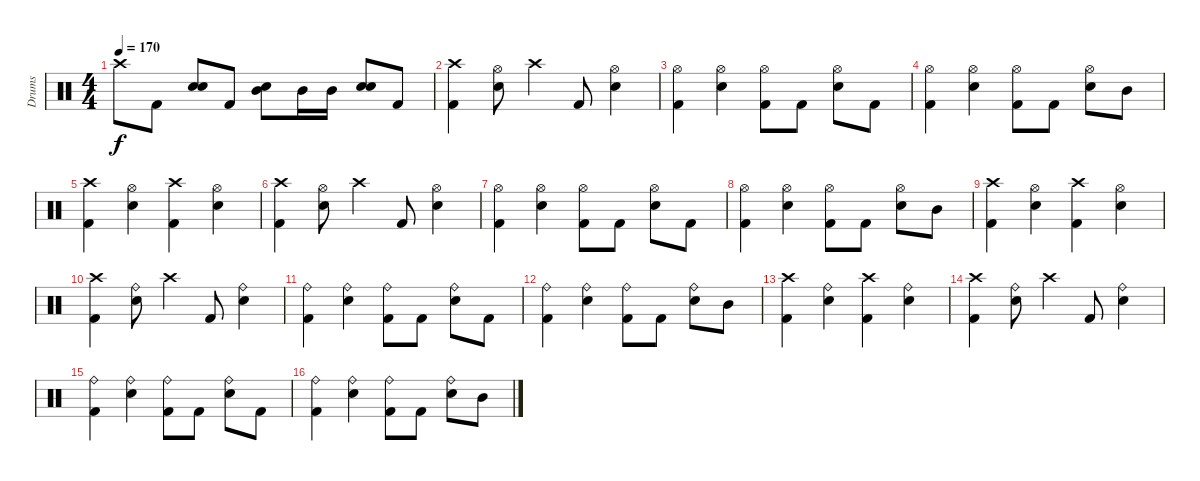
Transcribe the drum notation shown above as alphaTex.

\track ("Drums" "Drums") {instrument percussion}
\staff {score}
\articulation defaults
\ts (4 4)
\tempo 170
\clef neutral
\ks c "Crash high (hit)".8{dy f} "Kick (hit) 2".8
("Snare (hit) 2" "Snare (hit) 2").8{bd 120} "Kick (hit) 2".8 ("Mid Tom (hit)" "Snare (hit) 2").8 "Mid Tom (hit)".16 "Mid Tom (hit)".16 ("Snare (hit) 2" "Snare (hit) 2").8{bd 120} "Kick (hit) 2".8 |
("Crash high (hit)" "Kick (hit) 2").4 ("Hi-Hat (open)" "Snare (hit) 2").8 "Crash high (hit)".4 "Kick (hit) 2".8 ("Hi-Hat (open)" "Snare (hit) 2").4 |
("Hi-Hat (open)" "Kick (hit) 2").4 ("Hi-Hat (open)" "Snare (hit) 2").4 ("Hi-Hat (open)" "Kick (hit) 2").8 "Kick (hit) 2".8 ("Hi-Hat (open)" "Snare (hit) 2").8 "Kick (hit) 2".8 |
("Hi-Hat (open)" "Kick (hit) 2").4 ("Hi-Hat (open)" "Snare (hit) 2").4 ("Hi-Hat (open)" "Kick (hit) 2").8 "Kick (hit) 2".8 ("Hi-Hat (open)" "Snare (hit) 2").8 "Mid Tom (hit)".8 |
("Crash high (hit)" "Kick (hit) 2").4 ("Hi-Hat (open)" "Snare (hit) 2").4 ("Crash high (hit)" "Kick (hit) 2").4 ("Hi-Hat (open)" "Snare (hit) 2").4 |
("Crash high (hit)" "Kick (hit) 2").4 ("Hi-Hat (open)" "Snare (hit) 2").8 "Crash high (hit)".4 "Kick (hit) 2".8 ("Hi-Hat (open)" "Snare (hit) 2").4 |
("Hi-Hat (open)" "Kick (hit) 2").4 ("Hi-Hat (open)" "Snare (hit) 2").4 ("Hi-Hat (open)" "Kick (hit) 2").8 "Kick (hit) 2".8 ("Hi-Hat (open)" "Snare (hit) 2").8 "Kick (hit) 2".8 |
("Hi-Hat (open)" "Kick (hit) 2").4 ("Hi-Hat (open)" "Snare (hit) 2").4 ("Hi-Hat (open)" "Kick (hit) 2").8 "Kick (hit) 2".8 ("Hi-Hat (open)" "Snare (hit) 2").8 "Mid Tom (hit)".8 |
("Crash high (hit)" "Kick (hit) 2").4 ("Hi-Hat (open)" "Snare (hit) 2").4 ("Crash high (hit)" "Kick (hit) 2").4 ("Hi-Hat (open)" "Snare (hit) 2").4 |
("Crash high (hit)" "Kick (hit) 2").4 ("Ride (bell)" "Snare (hit) 2").8 "Crash high (hit)".4 "Kick (hit) 2".8 ("Ride (bell)" "Snare (hit) 2").4 |
("Ride (bell)" "Kick (hit) 2").4 ("Ride (bell)" "Snare (hit) 2").4 ("Ride (bell)" "Kick (hit) 2").8 "Kick (hit) 2".8 ("Ride (bell)" "Snare (hit) 2").8 "Kick (hit) 2".8 |
("Ride (bell)" "Kick (hit) 2").4 ("Ride (bell)" "Snare (hit) 2").4 ("Ride (bell)" "Kick (hit) 2").8 "Kick (hit) 2".8 ("Ride (bell)" "Snare (hit) 2").8 "Mid Tom (hit)".8 |
("Crash high (hit)" "Kick (hit) 2").4 ("Ride (bell)" "Snare (hit) 2").4 ("Crash high (hit)" "Kick (hit) 2").4 ("Ride (bell)" "Snare (hit) 2").4 |
("Crash high (hit)" "Kick (hit) 2").4 ("Ride (bell)" "Snare (hit) 2").8 "Crash high (hit)".4 "Kick (hit) 2".8 ("Ride (bell)" "Snare (hit) 2").4 |
("Ride (bell)" "Kick (hit) 2").4 ("Ride (bell)" "Snare (hit) 2").4 ("Ride (bell)" "Kick (hit) 2").8 "Kick (hit) 2".8 ("Ride (bell)" "Snare (hit) 2").8 "Kick (hit) 2".8 |
("Ride (bell)" "Kick (hit) 2").4 ("Ride (bell)" "Snare (hit) 2").4 ("Ride (bell)" "Kick (hit) 2").8 "Kick (hit) 2".8 ("Ride (bell)" "Snare (hit) 2").8 "Mid Tom (hit)".8
